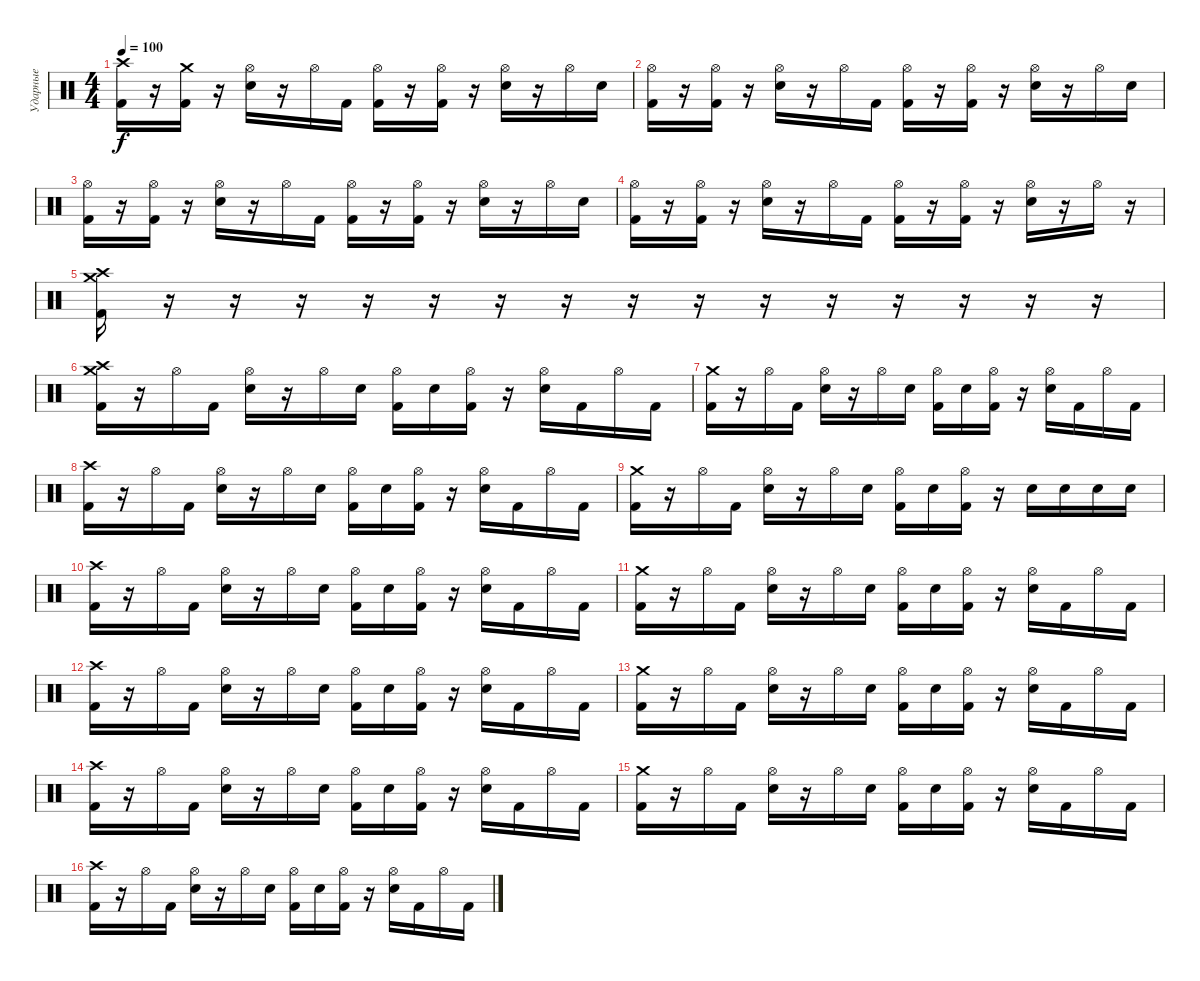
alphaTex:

\track ("Ударные" "Ударные") {instrument percussion}
\staff {score}
\articulation defaults
\ts (4 4)
\tempo 100
\clef neutral
\ks c
("Crash high (hit)" "Kick (hit) 2").16{dy f} r.16 ("Crash medium (hit)" "Kick (hit) 2").16 r.16 ("Hi-Hat (open)" "Snare (hit) 2").16 r.16 "Hi-Hat (open)".16 "Kick (hit) 2".16 ("Hi-Hat (open)" "Kick (hit) 2").16 r.16 ("Hi-Hat (open)" "Kick (hit) 2").16 r.16 ("Hi-Hat (open)" "Snare (hit) 2").16 r.16 "Hi-Hat (open)".16 "Snare (hit) 2".16 |
("Hi-Hat (open)" "Kick (hit) 2").16 r.16 ("Hi-Hat (open)" "Kick (hit) 2").16 r.16 ("Hi-Hat (open)" "Snare (hit) 2").16 r.16 "Hi-Hat (open)".16 "Kick (hit) 2".16 ("Hi-Hat (open)" "Kick (hit) 2").16 r.16 ("Hi-Hat (open)" "Kick (hit) 2").16 r.16 ("Hi-Hat (open)" "Snare (hit) 2").16 r.16 "Hi-Hat (open)".16 "Snare (hit) 2".16 |
("Hi-Hat (open)" "Kick (hit) 2").16 r.16 ("Hi-Hat (open)" "Kick (hit) 2").16 r.16 ("Hi-Hat (open)" "Snare (hit) 2").16 r.16 "Hi-Hat (open)".16 "Kick (hit) 2".16 ("Hi-Hat (open)" "Kick (hit) 2").16 r.16 ("Hi-Hat (open)" "Kick (hit) 2").16 r.16 ("Hi-Hat (open)" "Snare (hit) 2").16 r.16 "Hi-Hat (open)".16 "Snare (hit) 2".16 |
("Hi-Hat (open)" "Kick (hit) 2").16 r.16 ("Hi-Hat (open)" "Kick (hit) 2").16 r.16 ("Hi-Hat (open)" "Snare (hit) 2").16 r.16 "Hi-Hat (open)".16 "Kick (hit) 2".16 ("Hi-Hat (open)" "Kick (hit) 2").16 r.16 ("Hi-Hat (open)" "Kick (hit) 2").16 r.16 ("Hi-Hat (open)" "Snare (hit) 2").16 r.16 "Hi-Hat (open)".16 r.16 |
("Crash high (hit)" "Crash medium (hit)" "Kick (hit) 2").16 r.16 r.16 r.16 r.16 r.16 r.16 r.16 r.16 r.16 r.16 r.16 r.16 r.16 r.16 r.16 |
("Crash high (hit)" "Crash medium (hit)" "Kick (hit) 2").16 r.16 "Hi-Hat (open)".16 "Kick (hit) 2".16 ("Hi-Hat (open)" "Snare (hit) 2").16 r.16 "Hi-Hat (open)".16 "Snare (hit) 2".16 ("Hi-Hat (open)" "Kick (hit) 2").16 "Snare (hit) 2".16 ("Hi-Hat (open)" "Kick (hit) 2").16 r.16 ("Hi-Hat (open)" "Snare (hit) 2").16 "Kick (hit) 2".16 "Hi-Hat (open)".16 "Kick (hit) 2".16 |
("Crash medium (hit)" "Kick (hit) 2").16 r.16 "Hi-Hat (open)".16 "Kick (hit) 2".16 ("Hi-Hat (open)" "Snare (hit) 2").16 r.16 "Hi-Hat (open)".16 "Snare (hit) 2".16 ("Hi-Hat (open)" "Kick (hit) 2").16 "Snare (hit) 2".16 ("Hi-Hat (open)" "Kick (hit) 2").16 r.16 ("Hi-Hat (open)" "Snare (hit) 2").16 "Kick (hit) 2".16 "Hi-Hat (open)".16 "Kick (hit) 2".16 |
("Crash high (hit)" "Kick (hit) 2").16 r.16 "Hi-Hat (open)".16 "Kick (hit) 2".16 ("Hi-Hat (open)" "Snare (hit) 2").16 r.16 "Hi-Hat (open)".16 "Snare (hit) 2".16 ("Hi-Hat (open)" "Kick (hit) 2").16 "Snare (hit) 2".16 ("Hi-Hat (open)" "Kick (hit) 2").16 r.16 ("Hi-Hat (open)" "Snare (hit) 2").16 "Kick (hit) 2".16 "Hi-Hat (open)".16 "Kick (hit) 2".16 |
("Crash medium (hit)" "Kick (hit) 2").16 r.16 "Hi-Hat (open)".16 "Kick (hit) 2".16 ("Hi-Hat (open)" "Snare (hit) 2").16 r.16 "Hi-Hat (open)".16 "Snare (hit) 2".16 ("Hi-Hat (open)" "Kick (hit) 2").16 "Snare (hit) 2".16 ("Hi-Hat (open)" "Kick (hit) 2").16 r.16 "Snare (hit) 2".16 "Snare (hit) 2".16 "Snare (hit) 2".16 "Snare (hit) 2".16 |
("Crash high (hit)" "Kick (hit) 2").16 r.16 "Hi-Hat (open)".16 "Kick (hit) 2".16 ("Hi-Hat (open)" "Snare (hit) 2").16 r.16 "Hi-Hat (open)".16 "Snare (hit) 2".16 ("Hi-Hat (open)" "Kick (hit) 2").16 "Snare (hit) 2".16 ("Hi-Hat (open)" "Kick (hit) 2").16 r.16 ("Hi-Hat (open)" "Snare (hit) 2").16 "Kick (hit) 2".16 "Hi-Hat (open)".16 "Kick (hit) 2".16 |
("Crash medium (hit)" "Kick (hit) 2").16 r.16 "Hi-Hat (open)".16 "Kick (hit) 2".16 ("Hi-Hat (open)" "Snare (hit) 2").16 r.16 "Hi-Hat (open)".16 "Snare (hit) 2".16 ("Hi-Hat (open)" "Kick (hit) 2").16 "Snare (hit) 2".16 ("Hi-Hat (open)" "Kick (hit) 2").16 r.16 ("Hi-Hat (open)" "Snare (hit) 2").16 "Kick (hit) 2".16 "Hi-Hat (open)".16 "Kick (hit) 2".16 |
("Crash high (hit)" "Kick (hit) 2").16 r.16 "Hi-Hat (open)".16 "Kick (hit) 2".16 ("Hi-Hat (open)" "Snare (hit) 2").16 r.16 "Hi-Hat (open)".16 "Snare (hit) 2".16 ("Hi-Hat (open)" "Kick (hit) 2").16 "Snare (hit) 2".16 ("Hi-Hat (open)" "Kick (hit) 2").16 r.16 ("Hi-Hat (open)" "Snare (hit) 2").16 "Kick (hit) 2".16 "Hi-Hat (open)".16 "Kick (hit) 2".16 |
("Crash medium (hit)" "Kick (hit) 2").16 r.16 "Hi-Hat (open)".16 "Kick (hit) 2".16 ("Hi-Hat (open)" "Snare (hit) 2").16 r.16 "Hi-Hat (open)".16 "Snare (hit) 2".16 ("Hi-Hat (open)" "Kick (hit) 2").16 "Snare (hit) 2".16 ("Hi-Hat (open)" "Kick (hit) 2").16 r.16 ("Hi-Hat (open)" "Snare (hit) 2").16 "Kick (hit) 2".16 "Hi-Hat (open)".16 "Kick (hit) 2".16 |
("Crash high (hit)" "Kick (hit) 2").16 r.16 "Hi-Hat (open)".16 "Kick (hit) 2".16 ("Hi-Hat (open)" "Snare (hit) 2").16 r.16 "Hi-Hat (open)".16 "Snare (hit) 2".16 ("Hi-Hat (open)" "Kick (hit) 2").16 "Snare (hit) 2".16 ("Hi-Hat (open)" "Kick (hit) 2").16 r.16 ("Hi-Hat (open)" "Snare (hit) 2").16 "Kick (hit) 2".16 "Hi-Hat (open)".16 "Kick (hit) 2".16 |
("Crash medium (hit)" "Kick (hit) 2").16 r.16 "Hi-Hat (open)".16 "Kick (hit) 2".16 ("Hi-Hat (open)" "Snare (hit) 2").16 r.16 "Hi-Hat (open)".16 "Snare (hit) 2".16 ("Hi-Hat (open)" "Kick (hit) 2").16 "Snare (hit) 2".16 ("Hi-Hat (open)" "Kick (hit) 2").16 r.16 ("Hi-Hat (open)" "Snare (hit) 2").16 "Kick (hit) 2".16 "Hi-Hat (open)".16 "Kick (hit) 2".16 |
("Crash high (hit)" "Kick (hit) 2").16 r.16 "Hi-Hat (open)".16 "Kick (hit) 2".16 ("Hi-Hat (open)" "Snare (hit) 2").16 r.16 "Hi-Hat (open)".16 "Snare (hit) 2".16 ("Hi-Hat (open)" "Kick (hit) 2").16 "Snare (hit) 2".16 ("Hi-Hat (open)" "Kick (hit) 2").16 r.16 ("Hi-Hat (open)" "Snare (hit) 2").16 "Kick (hit) 2".16 "Hi-Hat (open)".16 "Kick (hit) 2".16
